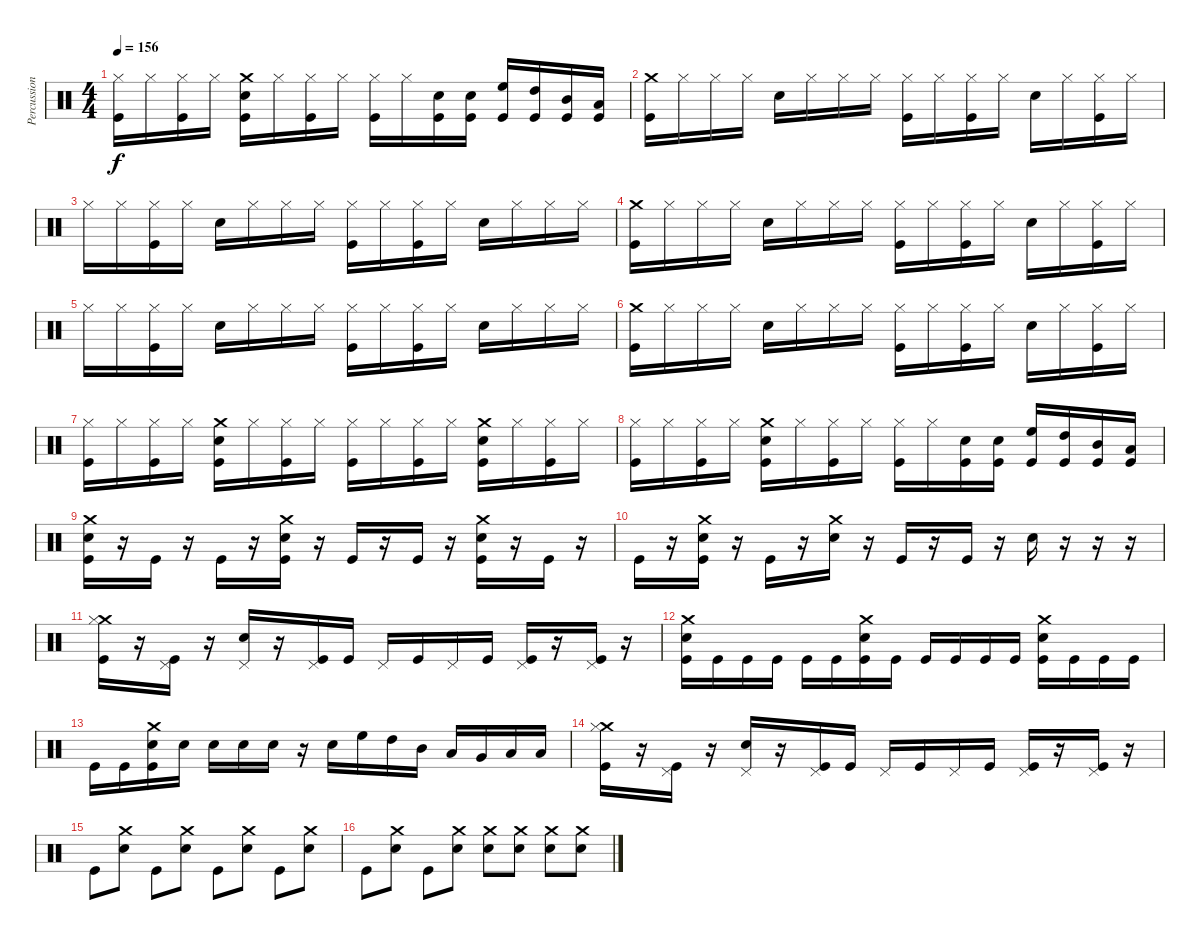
\track ("Percussion" "Percussion") {instrument percussion}
\staff {score}
\articulation defaults
\ts (4 4)
\tempo 156
\clef neutral
\ks c
("Kick (hit)" "Hi-Hat (closed)").16{dy f} "Hi-Hat (closed)".16 ("Kick (hit)" "Hi-Hat (closed)").16 "Hi-Hat (closed)".16 ("Kick (hit)" "Snare (hit) 2" "Crash medium (hit)").16 "Hi-Hat (closed)".16 ("Kick (hit)" "Hi-Hat (closed)").16 "Hi-Hat (closed)".16 ("Kick (hit)" "Hi-Hat (closed)").16 "Hi-Hat (closed)".16 ("Snare (hit) 2" "Kick (hit)").16 ("Snare (hit) 2" "Kick (hit)").16 ("High Floor Tom (hit)" "Kick (hit)").16 ("High Tom (hit)" "Kick (hit)").16 ("Mid Tom (hit)" "Kick (hit)").16 ("Low Tom (hit)" "Kick (hit)").16 |
("Kick (hit)" "Crash medium (hit)").16 "Hi-Hat (closed)".16 "Hi-Hat (closed)".16 "Hi-Hat (closed)".16 "Snare (hit) 2".16 "Hi-Hat (closed)".16 "Hi-Hat (closed)".16 "Hi-Hat (closed)".16 ("Kick (hit)" "Hi-Hat (closed)").16 "Hi-Hat (closed)".16 ("Kick (hit)" "Hi-Hat (closed)").16 "Hi-Hat (closed)".16 "Snare (hit) 2".16 "Hi-Hat (closed)".16 ("Kick (hit)" "Hi-Hat (closed)").16 "Hi-Hat (closed)".16 |
"Hi-Hat (closed)".16 "Hi-Hat (closed)".16 ("Kick (hit)" "Hi-Hat (closed)").16 "Hi-Hat (closed)".16 "Snare (hit) 2".16 "Hi-Hat (closed)".16 "Hi-Hat (closed)".16 "Hi-Hat (closed)".16 ("Kick (hit)" "Hi-Hat (closed)").16 "Hi-Hat (closed)".16 ("Kick (hit)" "Hi-Hat (closed)").16 "Hi-Hat (closed)".16 "Snare (hit) 2".16 "Hi-Hat (closed)".16 "Hi-Hat (closed)".16 "Hi-Hat (closed)".16 |
("Kick (hit)" "Crash medium (hit)").16 "Hi-Hat (closed)".16 "Hi-Hat (closed)".16 "Hi-Hat (closed)".16 "Snare (hit) 2".16 "Hi-Hat (closed)".16 "Hi-Hat (closed)".16 "Hi-Hat (closed)".16 ("Kick (hit)" "Hi-Hat (closed)").16 "Hi-Hat (closed)".16 ("Kick (hit)" "Hi-Hat (closed)").16 "Hi-Hat (closed)".16 "Snare (hit) 2".16 "Hi-Hat (closed)".16 ("Kick (hit)" "Hi-Hat (closed)").16 "Hi-Hat (closed)".16 |
"Hi-Hat (closed)".16 "Hi-Hat (closed)".16 ("Kick (hit)" "Hi-Hat (closed)").16 "Hi-Hat (closed)".16 "Snare (hit) 2".16 "Hi-Hat (closed)".16 "Hi-Hat (closed)".16 "Hi-Hat (closed)".16 ("Kick (hit)" "Hi-Hat (closed)").16 "Hi-Hat (closed)".16 ("Kick (hit)" "Hi-Hat (closed)").16 "Hi-Hat (closed)".16 "Snare (hit) 2".16 "Hi-Hat (closed)".16 "Hi-Hat (closed)".16 "Hi-Hat (closed)".16 |
("Kick (hit)" "Crash medium (hit)").16 "Hi-Hat (closed)".16 "Hi-Hat (closed)".16 "Hi-Hat (closed)".16 "Snare (hit) 2".16 "Hi-Hat (closed)".16 "Hi-Hat (closed)".16 "Hi-Hat (closed)".16 ("Kick (hit)" "Hi-Hat (closed)").16 "Hi-Hat (closed)".16 ("Kick (hit)" "Hi-Hat (closed)").16 "Hi-Hat (closed)".16 "Snare (hit) 2".16 "Hi-Hat (closed)".16 ("Kick (hit)" "Hi-Hat (closed)").16 "Hi-Hat (closed)".16 |
("Kick (hit)" "Hi-Hat (closed)").16 "Hi-Hat (closed)".16 ("Kick (hit)" "Hi-Hat (closed)").16 "Hi-Hat (closed)".16 ("Kick (hit)" "Snare (hit) 2" "Crash medium (hit)").16 "Hi-Hat (closed)".16 ("Kick (hit)" "Hi-Hat (closed)").16 "Hi-Hat (closed)".16 ("Kick (hit)" "Hi-Hat (closed)").16 "Hi-Hat (closed)".16 ("Kick (hit)" "Hi-Hat (closed)").16 "Hi-Hat (closed)".16 ("Kick (hit)" "Snare (hit) 2" "Crash medium (hit)").16 "Hi-Hat (closed)".16 ("Kick (hit)" "Hi-Hat (closed)").16 "Hi-Hat (closed)".16 |
("Kick (hit)" "Hi-Hat (closed)").16 "Hi-Hat (closed)".16 ("Kick (hit)" "Hi-Hat (closed)").16 "Hi-Hat (closed)".16 ("Kick (hit)" "Snare (hit) 2" "Crash medium (hit)").16 "Hi-Hat (closed)".16 ("Kick (hit)" "Hi-Hat (closed)").16 "Hi-Hat (closed)".16 ("Kick (hit)" "Hi-Hat (closed)").16 "Hi-Hat (closed)".16 ("Snare (hit) 2" "Kick (hit)").16 ("Snare (hit) 2" "Kick (hit)").16 ("High Floor Tom (hit)" "Kick (hit)").16 ("High Tom (hit)" "Kick (hit)").16 ("Mid Tom (hit)" "Kick (hit)").16 ("Low Tom (hit)" "Kick (hit)").16 |
("Crash medium (hit)" "Kick (hit)" "Snare (hit) 2").16 r.16 "Kick (hit)".16 r.16 "Kick (hit)".16 r.16 ("Crash medium (hit)" "Kick (hit)" "Snare (hit) 2").16 r.16 "Kick (hit)".16 r.16 "Kick (hit)".16 r.16 ("Crash medium (hit)" "Kick (hit)" "Snare (hit) 2").16 r.16 "Kick (hit)".16 r.16 |
"Kick (hit)".16 r.16 ("Crash medium (hit)" "Kick (hit)" "Snare (hit) 2").16 r.16 "Kick (hit)".16 r.16 ("Crash medium (hit)" "Snare (hit) 2").16 r.16 "Kick (hit)".16 r.16 "Kick (hit)".16 r.16 "Snare (hit) 2".16 r.16 r.16 r.16 |
("Crash medium (hit)" "Hi-Hat (closed)" "Kick (hit)").16 r.16 ("Pedal Hi-Hat (hit)" "Kick (hit)").16 r.16 ("Pedal Hi-Hat (hit)" "Snare (hit) 2").16 r.16 ("Pedal Hi-Hat (hit)" "Kick (hit)").16 "Kick (hit)".16 "Pedal Hi-Hat (hit)".16 "Kick (hit)".16 "Pedal Hi-Hat (hit)".16 "Kick (hit)".16 ("Pedal Hi-Hat (hit)" "Kick (hit)").16 r.16 ("Pedal Hi-Hat (hit)" "Kick (hit)").16 r.16 |
("Crash medium (hit)" "Kick (hit)" "Snare (hit) 2").16 "Kick (hit)".16 "Kick (hit)".16 "Kick (hit)".16 "Kick (hit)".16 "Kick (hit)".16 ("Crash medium (hit)" "Kick (hit)" "Snare (hit) 2").16 "Kick (hit)".16 "Kick (hit)".16 "Kick (hit)".16 "Kick (hit)".16 "Kick (hit)".16 ("Crash medium (hit)" "Kick (hit)" "Snare (hit) 2").16 "Kick (hit)".16 "Kick (hit)".16 "Kick (hit)".16 |
"Kick (hit)".16 "Kick (hit)".16 ("Crash medium (hit)" "Kick (hit)" "Snare (hit) 2").16 "Snare (hit) 2".16 "Snare (hit) 2".16 "Snare (hit) 2".16 "Snare (hit) 2".16 r.16 "Snare (hit) 2".16 "High Floor Tom (hit)".16 "High Tom (hit)".16 "Mid Tom (hit)".16 "Low Tom (hit)".16 "Very Low Tom (hit)".16 "Low Floor Tom (hit)".16 "Low Floor Tom (hit)".16 |
("Crash medium (hit)" "Hi-Hat (closed)" "Kick (hit)").16 r.16 ("Pedal Hi-Hat (hit)" "Kick (hit)").16 r.16 ("Pedal Hi-Hat (hit)" "Snare (hit) 2").16 r.16 ("Pedal Hi-Hat (hit)" "Kick (hit)").16 "Kick (hit)".16 "Pedal Hi-Hat (hit)".16 "Kick (hit)".16 "Pedal Hi-Hat (hit)".16 "Kick (hit)".16 ("Pedal Hi-Hat (hit)" "Kick (hit)").16 r.16 ("Pedal Hi-Hat (hit)" "Kick (hit)").16 r.16 |
"Kick (hit)".8 ("Crash medium (hit)" "Snare (hit) 2").8 "Kick (hit)".8 ("Crash medium (hit)" "Snare (hit) 2").8 "Kick (hit)".8 ("Crash medium (hit)" "Snare (hit) 2").8 "Kick (hit)".8 ("Crash medium (hit)" "Snare (hit) 2").8 |
"Kick (hit)".8 ("Crash medium (hit)" "Snare (hit) 2").8 "Kick (hit)".8 ("Crash medium (hit)" "Snare (hit) 2").8 ("Crash medium (hit)" "Snare (hit) 2").8 ("Crash medium (hit)" "Snare (hit) 2").8 ("Crash medium (hit)" "Snare (hit) 2").8 ("Crash medium (hit)" "Snare (hit) 2").8
